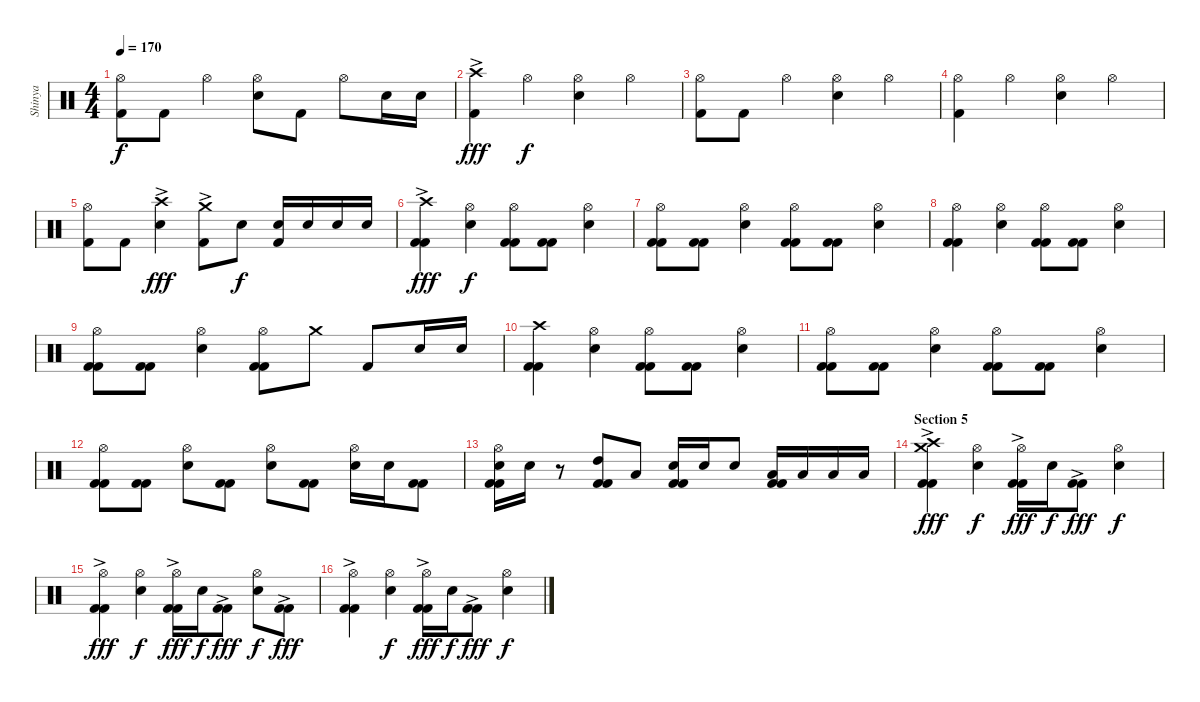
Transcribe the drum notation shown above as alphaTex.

\track ("Shinya" "Shinya") {instrument percussion}
\staff {score}
\articulation defaults
\ts (4 4)
\tempo 170
\clef neutral
\ks c
("Hi-Hat (open)" "Kick (hit) 2").8{dy f} "Kick (hit) 2".8 "Hi-Hat (open)".4 ("Hi-Hat (open)" "Snare (hit) 2").8 "Kick (hit) 2".8 "Hi-Hat (open)".8 "Snare (hit) 2".16 "Snare (hit) 2".16 |
("Crash high (hit)"{ac} "Kick (hit) 2").4{dy fff} "Hi-Hat (open)".4{dy f} ("Hi-Hat (open)" "Snare (hit) 2").4 "Hi-Hat (open)".4 |
("Hi-Hat (open)" "Kick (hit) 2").8 "Kick (hit) 2".8 "Hi-Hat (open)".4 ("Hi-Hat (open)" "Snare (hit) 2").4 "Hi-Hat (open)".4 |
("Hi-Hat (open)" "Kick (hit) 2").4 "Hi-Hat (open)".4 ("Hi-Hat (open)" "Snare (hit) 2").4 "Hi-Hat (open)".4 |
("Hi-Hat (open)" "Kick (hit) 2").8 "Kick (hit) 2".8 ("Crash high (hit)"{ac} "Snare (hit) 2").4{dy fff} ("Crash medium (hit)"{ac} "Kick (hit) 2").8 "Snare (hit) 2".8{dy f} ("Snare (hit) 2" "Kick (hit) 2").16 "Snare (hit) 2".16 "Snare (hit) 2".16 "Snare (hit) 2".16 |
("Crash high (hit)"{ac} "Kick (hit) 2" "Kick (hit) 2").4{dy fff} ("Hi-Hat (open)" "Snare (hit) 2").4{dy f} ("Hi-Hat (open)" "Kick (hit) 2" "Kick (hit) 2").8 ("Kick (hit) 2" "Kick (hit) 2").8 ("Hi-Hat (open)" "Snare (hit) 2").4 |
("Hi-Hat (open)" "Kick (hit) 2" "Kick (hit) 2").8 ("Kick (hit) 2" "Kick (hit) 2").8 ("Hi-Hat (open)" "Snare (hit) 2").4 ("Hi-Hat (open)" "Kick (hit) 2" "Kick (hit) 2").8 ("Kick (hit) 2" "Kick (hit) 2").8 ("Hi-Hat (open)" "Snare (hit) 2").4 |
("Hi-Hat (open)" "Kick (hit) 2" "Kick (hit) 2").4 ("Hi-Hat (open)" "Snare (hit) 2").4 ("Hi-Hat (open)" "Kick (hit) 2" "Kick (hit) 2").8 ("Kick (hit) 2" "Kick (hit) 2").8 ("Hi-Hat (open)" "Snare (hit) 2").4 |
("Hi-Hat (open)" "Kick (hit) 2" "Kick (hit) 2").8 ("Kick (hit) 2" "Kick (hit) 2").8 ("Hi-Hat (open)" "Snare (hit) 2").4 ("Hi-Hat (open)" "Kick (hit) 2" "Kick (hit) 2").8 "Crash medium (hit)".8 "Kick (hit) 2".8 "Snare (hit) 2".16 "Snare (hit) 2".16 |
("Crash high (hit)" "Kick (hit) 2" "Kick (hit) 2").4 ("Hi-Hat (open)" "Snare (hit) 2").4 ("Hi-Hat (open)" "Kick (hit) 2" "Kick (hit) 2").8 ("Kick (hit) 2" "Kick (hit) 2").8 ("Hi-Hat (open)" "Snare (hit) 2").4 |
("Hi-Hat (open)" "Kick (hit) 2" "Kick (hit) 2").8 ("Kick (hit) 2" "Kick (hit) 2").8 ("Hi-Hat (open)" "Snare (hit) 2").4 ("Hi-Hat (open)" "Kick (hit) 2" "Kick (hit) 2").8 ("Kick (hit) 2" "Kick (hit) 2").8 ("Hi-Hat (open)" "Snare (hit) 2").4 |
("Hi-Hat (open)" "Kick (hit) 2" "Kick (hit) 2").8 ("Kick (hit) 2" "Kick (hit) 2").8 ("Hi-Hat (open)" "Snare (hit) 2").8 ("Kick (hit) 2" "Kick (hit) 2").8 ("Hi-Hat (open)" "Snare (hit) 2").8 ("Kick (hit) 2" "Kick (hit) 2").8 ("Hi-Hat (open)" "Snare (hit) 2").16 "Snare (hit) 2".16 ("Kick (hit) 2" "Kick (hit) 2").8 |
("Hi-Hat (open)" "Snare (hit) 2" "Kick (hit) 2" "Kick (hit) 2").16 "Snare (hit) 2".16 r.8 ("High Tom (hit)" "Kick (hit) 2" "Kick (hit) 2").8 "Low Tom (hit)".8 ("Snare (hit) 2" "Kick (hit) 2" "Kick (hit) 2").16 "Snare (hit) 2".16 "Snare (hit) 2".8 ("Low Tom (hit)" "Kick (hit) 2" "Kick (hit) 2").16 "Low Tom (hit)".16 "Low Floor Tom (hit)".16 "Low Floor Tom (hit)".16 |
\section ("" "Section 5")
("Crash medium (hit)" "Crash high (hit)" "Kick (hit) 2"{ac} "Kick (hit) 2").4{dy fff} ("Hi-Hat (open)" "Snare (hit) 2").4{dy f} ("Hi-Hat (open)" "Kick (hit) 2"{ac} "Kick (hit) 2").16{dy fff} "Snare (hit) 2".16{dy f} ("Kick (hit) 2"{ac} "Kick (hit) 2").8{dy fff} ("Hi-Hat (open)" "Snare (hit) 2").4{dy f} |
("Hi-Hat (open)" "Kick (hit) 2"{ac} "Kick (hit) 2").4{dy fff} ("Hi-Hat (open)" "Snare (hit) 2").4{dy f} ("Hi-Hat (open)" "Kick (hit) 2"{ac} "Kick (hit) 2").16{dy fff} "Snare (hit) 2".16{dy f} ("Kick (hit) 2"{ac} "Kick (hit) 2").8{dy fff} ("Hi-Hat (open)" "Snare (hit) 2").8{dy f} ("Kick (hit) 2"{ac} "Kick (hit) 2").8{dy fff} |
("Hi-Hat (open)" "Kick (hit) 2"{ac} "Kick (hit) 2").4 ("Hi-Hat (open)" "Snare (hit) 2").4{dy f} ("Hi-Hat (open)" "Kick (hit) 2"{ac} "Kick (hit) 2").16{dy fff} "Snare (hit) 2".16{dy f} ("Kick (hit) 2"{ac} "Kick (hit) 2").8{dy fff} ("Hi-Hat (open)" "Snare (hit) 2").4{dy f}
